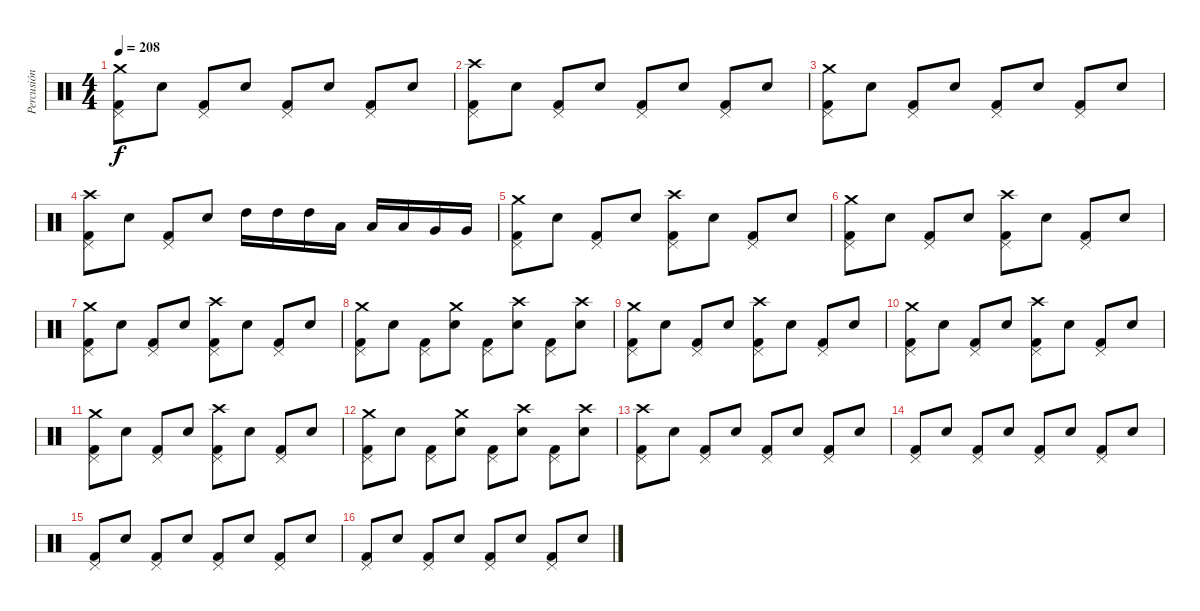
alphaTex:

\track ("Percusión" "Percusión") {instrument percussion}
\staff {score}
\articulation defaults
\ts (4 4)
\tempo 208
\clef neutral
\ks c
("Crash medium (hit)" "Pedal Hi-Hat (hit)" "Kick (hit) 2").8{dy f} "Electric Snare (hit)".8 ("Pedal Hi-Hat (hit)" "Kick (hit) 2").8 "Electric Snare (hit)".8 ("Pedal Hi-Hat (hit)" "Kick (hit) 2").8 "Electric Snare (hit)".8 ("Pedal Hi-Hat (hit)" "Kick (hit) 2").8 "Electric Snare (hit)".8 |
("Crash high (hit)" "Pedal Hi-Hat (hit)" "Kick (hit) 2").8 "Electric Snare (hit)".8 ("Pedal Hi-Hat (hit)" "Kick (hit) 2").8 "Electric Snare (hit)".8 ("Pedal Hi-Hat (hit)" "Kick (hit) 2").8 "Electric Snare (hit)".8 ("Pedal Hi-Hat (hit)" "Kick (hit) 2").8 "Electric Snare (hit)".8 |
("Crash medium (hit)" "Pedal Hi-Hat (hit)" "Kick (hit) 2").8 "Electric Snare (hit)".8 ("Pedal Hi-Hat (hit)" "Kick (hit) 2").8 "Electric Snare (hit)".8 ("Pedal Hi-Hat (hit)" "Kick (hit) 2").8 "Electric Snare (hit)".8 ("Pedal Hi-Hat (hit)" "Kick (hit) 2").8 "Electric Snare (hit)".8 |
("Crash high (hit)" "Pedal Hi-Hat (hit)" "Kick (hit) 2").8 "Electric Snare (hit)".8 ("Pedal Hi-Hat (hit)" "Kick (hit) 2").8 "Electric Snare (hit)".8 "High Tom (hit)".16 "High Tom (hit)".16 "High Tom (hit)".16 "Low Tom (hit)".16 "Low Tom (hit)".16 "Low Tom (hit)".16 "Very Low Tom (hit)".16 "Very Low Tom (hit)".16 |
("Crash medium (hit)" "Pedal Hi-Hat (hit)" "Kick (hit) 2").8 "Electric Snare (hit)".8 ("Pedal Hi-Hat (hit)" "Kick (hit) 2").8 "Electric Snare (hit)".8 ("Crash high (hit)" "Pedal Hi-Hat (hit)" "Kick (hit) 2").8 "Electric Snare (hit)".8 ("Pedal Hi-Hat (hit)" "Kick (hit) 2").8 "Electric Snare (hit)".8 |
("Crash medium (hit)" "Pedal Hi-Hat (hit)" "Kick (hit) 2").8 "Electric Snare (hit)".8 ("Pedal Hi-Hat (hit)" "Kick (hit) 2").8 "Electric Snare (hit)".8 ("Crash high (hit)" "Pedal Hi-Hat (hit)" "Kick (hit) 2").8 "Electric Snare (hit)".8 ("Pedal Hi-Hat (hit)" "Kick (hit) 2").8 "Electric Snare (hit)".8 |
("Crash medium (hit)" "Pedal Hi-Hat (hit)" "Kick (hit) 2").8 "Electric Snare (hit)".8 ("Pedal Hi-Hat (hit)" "Kick (hit) 2").8 "Electric Snare (hit)".8 ("Crash high (hit)" "Pedal Hi-Hat (hit)" "Kick (hit) 2").8 "Electric Snare (hit)".8 ("Pedal Hi-Hat (hit)" "Kick (hit) 2").8 "Electric Snare (hit)".8 |
("Crash medium (hit)" "Pedal Hi-Hat (hit)" "Kick (hit) 2").8 "Electric Snare (hit)".8 ("Pedal Hi-Hat (hit)" "Kick (hit) 2").8 ("Crash medium (hit)" "Electric Snare (hit)").8 ("Pedal Hi-Hat (hit)" "Kick (hit) 2").8 ("Crash high (hit)" "Electric Snare (hit)").8 ("Pedal Hi-Hat (hit)" "Kick (hit) 2").8 ("Crash high (hit)" "Electric Snare (hit)").8 |
("Crash medium (hit)" "Pedal Hi-Hat (hit)" "Kick (hit) 2").8 "Electric Snare (hit)".8 ("Pedal Hi-Hat (hit)" "Kick (hit) 2").8 "Electric Snare (hit)".8 ("Crash high (hit)" "Pedal Hi-Hat (hit)" "Kick (hit) 2").8 "Electric Snare (hit)".8 ("Pedal Hi-Hat (hit)" "Kick (hit) 2").8 "Electric Snare (hit)".8 |
("Crash medium (hit)" "Pedal Hi-Hat (hit)" "Kick (hit) 2").8 "Electric Snare (hit)".8 ("Pedal Hi-Hat (hit)" "Kick (hit) 2").8 "Electric Snare (hit)".8 ("Crash high (hit)" "Pedal Hi-Hat (hit)" "Kick (hit) 2").8 "Electric Snare (hit)".8 ("Pedal Hi-Hat (hit)" "Kick (hit) 2").8 "Electric Snare (hit)".8 |
("Crash medium (hit)" "Pedal Hi-Hat (hit)" "Kick (hit) 2").8 "Electric Snare (hit)".8 ("Pedal Hi-Hat (hit)" "Kick (hit) 2").8 "Electric Snare (hit)".8 ("Crash high (hit)" "Pedal Hi-Hat (hit)" "Kick (hit) 2").8 "Electric Snare (hit)".8 ("Pedal Hi-Hat (hit)" "Kick (hit) 2").8 "Electric Snare (hit)".8 |
("Crash medium (hit)" "Pedal Hi-Hat (hit)" "Kick (hit) 2").8 "Electric Snare (hit)".8 ("Pedal Hi-Hat (hit)" "Kick (hit) 2").8 ("Crash medium (hit)" "Electric Snare (hit)").8 ("Pedal Hi-Hat (hit)" "Kick (hit) 2").8 ("Crash high (hit)" "Electric Snare (hit)").8 ("Pedal Hi-Hat (hit)" "Kick (hit) 2").8 ("Crash high (hit)" "Electric Snare (hit)").8 |
("Crash high (hit)" "Pedal Hi-Hat (hit)" "Kick (hit) 2").8 "Electric Snare (hit)".8 ("Pedal Hi-Hat (hit)" "Kick (hit) 2").8 "Electric Snare (hit)".8 ("Pedal Hi-Hat (hit)" "Kick (hit) 2").8 "Electric Snare (hit)".8 ("Pedal Hi-Hat (hit)" "Kick (hit) 2").8 "Electric Snare (hit)".8 |
("Pedal Hi-Hat (hit)" "Kick (hit) 2").8 "Electric Snare (hit)".8 ("Pedal Hi-Hat (hit)" "Kick (hit) 2").8 "Electric Snare (hit)".8 ("Pedal Hi-Hat (hit)" "Kick (hit) 2").8 "Electric Snare (hit)".8 ("Pedal Hi-Hat (hit)" "Kick (hit) 2").8 "Electric Snare (hit)".8 |
("Pedal Hi-Hat (hit)" "Kick (hit) 2").8 "Electric Snare (hit)".8 ("Pedal Hi-Hat (hit)" "Kick (hit) 2").8 "Electric Snare (hit)".8 ("Pedal Hi-Hat (hit)" "Kick (hit) 2").8 "Electric Snare (hit)".8 ("Pedal Hi-Hat (hit)" "Kick (hit) 2").8 "Electric Snare (hit)".8 |
("Pedal Hi-Hat (hit)" "Kick (hit) 2").8 "Electric Snare (hit)".8 ("Pedal Hi-Hat (hit)" "Kick (hit) 2").8 "Electric Snare (hit)".8 ("Pedal Hi-Hat (hit)" "Kick (hit) 2").8 "Electric Snare (hit)".8 ("Pedal Hi-Hat (hit)" "Kick (hit) 2").8 "Electric Snare (hit)".8
